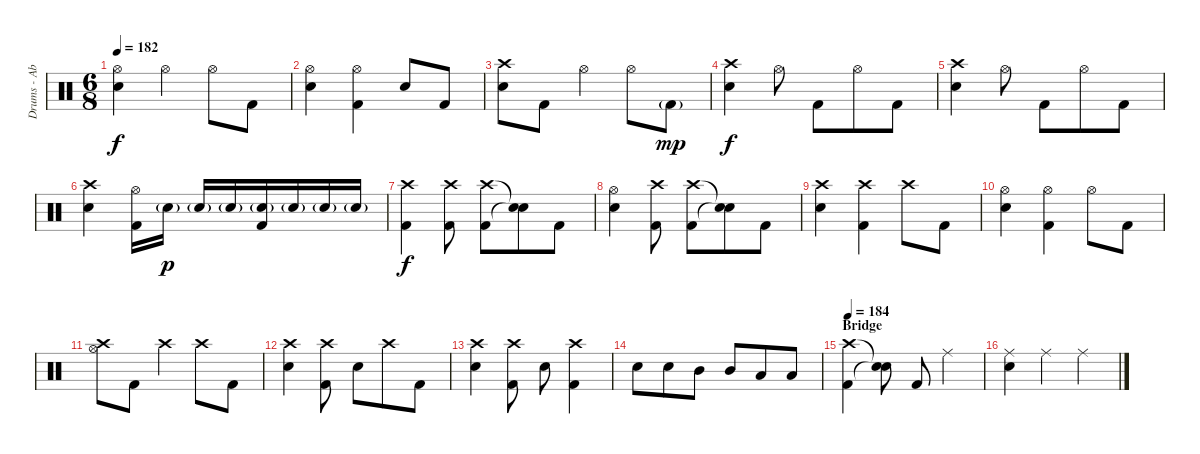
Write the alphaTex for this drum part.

\track ("Drums - Abe Cunningham" "Drums - Ab") {instrument percussion}
\staff {score}
\articulation defaults
\ts (6 8)
\tempo 182
\clef neutral
\ks c
("Hi-Hat (open)" "Electric Snare (hit)").4{dy f} "Hi-Hat (open)".4 "Hi-Hat (open)".8 "Kick (hit) 2".8 |
("Hi-Hat (open)" "Electric Snare (hit)").4 ("Hi-Hat (open)" "Kick (hit) 2").4 "Electric Snare (hit)".8 "Kick (hit) 2".8 |
("Crash high (hit)" "Electric Snare (hit)").8 "Kick (hit) 2".8 "Hi-Hat (open)".4 "Hi-Hat (open)".8 "Kick (hit) 2"{g}.8{dy mp} |
("Crash high (hit)" "Electric Snare (hit)").4{dy f} "Hi-Hat (open)".8 "Kick (hit) 2".8 "Hi-Hat (open)".8 "Kick (hit) 2".8 |
("Crash high (hit)" "Electric Snare (hit)").4 "Hi-Hat (open)".8 "Kick (hit) 2".8 "Hi-Hat (open)".8 "Kick (hit) 2".8 |
("Crash high (hit)" "Electric Snare (hit)").4 ("Hi-Hat (open)" "Kick (hit) 2").16 "Electric Snare (hit)"{g}.16{dy p} "Electric Snare (hit)"{g}.16 "Electric Snare (hit)"{g}.16 ("Electric Snare (hit)"{g} "Kick (hit) 2").16 "Electric Snare (hit)"{g}.16 "Electric Snare (hit)"{g}.16 "Electric Snare (hit)"{g}.16 |
("Crash high (hit)" "Kick (hit) 2").4{dy f} ("Crash high (hit)" "Kick (hit) 2").8 ("Crash high (hit)" "Kick (hit) 2").8 ("Snare (hit)"{t} "Snare (hit)"{t}).8 "Kick (hit) 2".8 |
("Hi-Hat (open)" "Electric Snare (hit)").4 ("Crash high (hit)" "Kick (hit) 2").8 ("Crash high (hit)" "Kick (hit) 2").8 ("Snare (hit)"{t} "Snare (hit)"{t}).8 "Kick (hit) 2".8 |
("Crash high (hit)" "Electric Snare (hit)").4 ("Crash high (hit)" "Kick (hit) 2").4 "Crash high (hit)".8 "Kick (hit) 2".8 |
("Hi-Hat (open)" "Electric Snare (hit)").4 ("Hi-Hat (open)" "Kick (hit) 2").4 "Hi-Hat (open)".8 "Kick (hit) 2".8 |
("Crash high (hit)" "Hi-Hat (open)").8 "Kick (hit) 2".8 "Crash high (hit)".4 "Crash high (hit)".8 "Kick (hit) 2".8 |
("Crash high (hit)" "Electric Snare (hit)").4 ("Crash high (hit)" "Kick (hit) 2").8 "Electric Snare (hit)".8 "Crash high (hit)".8 "Kick (hit) 2".8 |
("Crash high (hit)" "Electric Snare (hit)").4 ("Crash high (hit)" "Kick (hit) 2").8 "Electric Snare (hit)".8 ("Crash high (hit)" "Kick (hit) 2").4 |
"Electric Snare (hit)".8 "Electric Snare (hit)".8 "Mid Tom (hit)".8 "Mid Tom (hit)".8 "Low Tom (hit)".8 "Low Tom (hit)".8 |
\section ("" "Bridge")
\tempo 184
("Crash high (hit)" "Kick (hit) 2").4 ("Snare (hit)"{t} "Snare (hit)"{t}).8 "Kick (hit) 2".8 "Ride (middle)".4 |
("Ride (middle)" "Electric Snare (hit)").4 "Ride (middle)".4 "Ride (middle)".4
